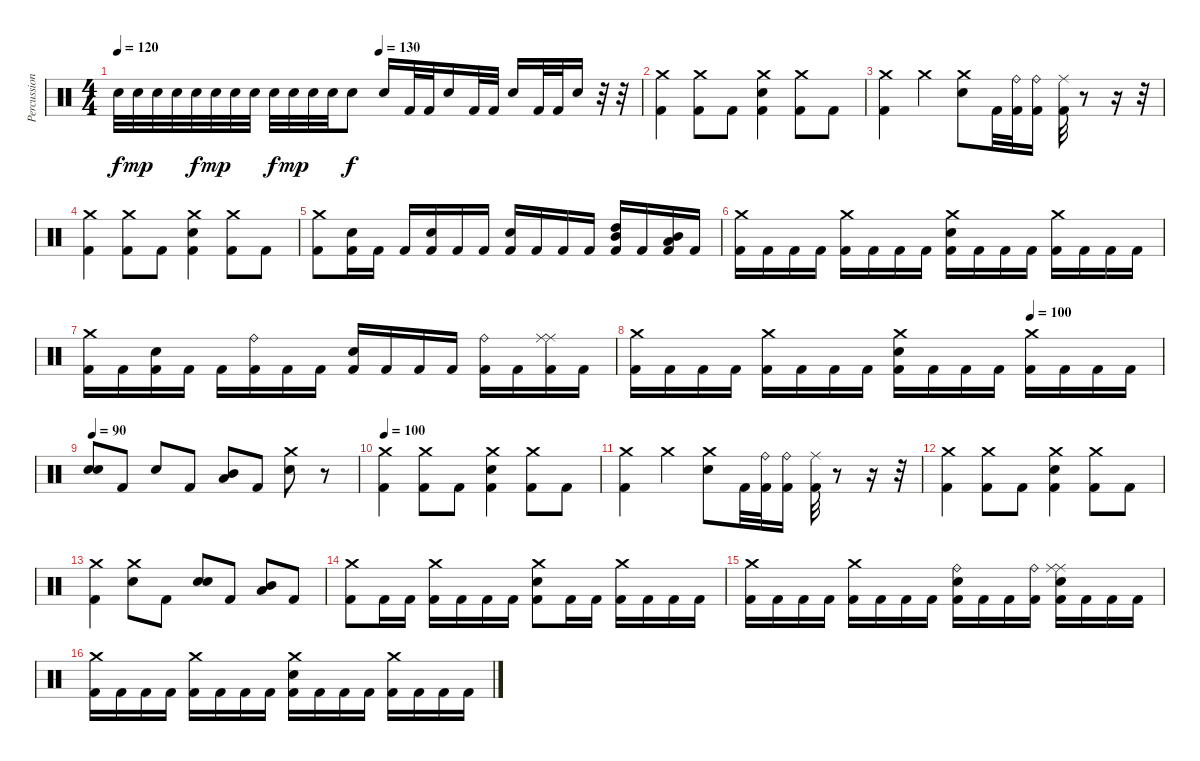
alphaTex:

\track ("Percussion" "Percussion") {instrument percussion}
\staff {score}
\articulation defaults
\ts (4 4)
\tempo 120
\tempo (130 0.5)
\tempo 120
\clef neutral
\ks c "Electric Snare (hit)".32{dy f} "Electric Snare (hit)".32{dy mp} "Electric Snare (hit)".32 "Electric Snare (hit)".32 "Electric Snare (hit)".32{dy f} "Electric Snare (hit)".32{dy mp} "Electric Snare (hit)".32 "Electric Snare (hit)".32 "Electric Snare (hit)".32{dy f} "Electric Snare (hit)".32{dy mp} "Electric Snare (hit)".32 "Electric Snare (hit)".32 "Electric Snare (hit)".8{dy f} "Electric Snare (hit)".16 "Kick (hit) 2".32 "Kick (hit) 2".32 "Electric Snare (hit)".16 "Kick (hit) 2".32 "Kick (hit) 2".32 "Electric Snare (hit)".16 "Kick (hit) 2".32 "Kick (hit) 2".32 "Electric Snare (hit)".16
r.32 r.32 |
("Crash medium (hit)" "Kick (hit) 2").4 ("Crash medium (hit)" "Kick (hit) 2").8 "Kick (hit) 2".8 ("Crash medium (hit)" "Electric Snare (hit)" "Kick (hit) 2").4 ("Crash medium (hit)" "Kick (hit) 2").8 "Kick (hit) 2".8 |
("Crash medium (hit)" "Kick (hit) 2").4 "Crash medium (hit)".4 ("Crash medium (hit)" "Electric Snare (hit)").8 "Kick (hit) 2".32 ("Ride (bell)" "Kick (hit) 2").32 ("Ride (bell)" "Kick (hit) 2").16 ("Ride (middle)" "Kick (hit) 2").32 r.8 r.16 r.32 |
("Crash medium (hit)" "Kick (hit) 2").4 ("Crash medium (hit)" "Kick (hit) 2").8 "Kick (hit) 2".8 ("Crash medium (hit)" "Electric Snare (hit)" "Kick (hit) 2").4 ("Crash medium (hit)" "Kick (hit) 2").8 "Kick (hit) 2".8 |
("Crash medium (hit)" "Kick (hit) 2").8 ("Kick (hit) 2" "Electric Snare (hit)").16 "Kick (hit) 2".16 "Kick (hit) 2".16 ("Electric Snare (hit)" "Kick (hit) 2").16 "Kick (hit) 2".16 "Kick (hit) 2".16 ("Electric Snare (hit)" "Kick (hit) 2").16 "Kick (hit) 2".16 "Kick (hit) 2".16 "Kick (hit) 2".16 ("High Tom (hit)" "Mid Tom (hit)" "Kick (hit) 2").16 "Kick (hit) 2".16 ("Low Tom (hit)" "Mid Tom (hit)" "Kick (hit) 2").16 "Kick (hit) 2".16 |
("Crash medium (hit)" "Kick (hit) 2").16 "Kick (hit) 2".16 "Kick (hit) 2".16 "Kick (hit) 2".16 ("Crash medium (hit)" "Kick (hit) 2").16 "Kick (hit) 2".16 "Kick (hit) 2".16 "Kick (hit) 2".16 ("Electric Snare (hit)" "Crash medium (hit)" "Kick (hit) 2").16 "Kick (hit) 2".16 "Kick (hit) 2".16 "Kick (hit) 2".16 ("Crash medium (hit)" "Kick (hit) 2").16 "Kick (hit) 2".16 "Kick (hit) 2".16 "Kick (hit) 2".16 |
("Crash medium (hit)" "Kick (hit) 2").16 "Kick (hit) 2".16 ("Kick (hit) 2" "Electric Snare (hit)").16 "Kick (hit) 2".16 "Kick (hit) 2".16 ("Ride (bell)" "Kick (hit) 2").16 "Kick (hit) 2".16 "Kick (hit) 2".16 ("Electric Snare (hit)" "Kick (hit) 2").16 "Kick (hit) 2".16 "Kick (hit) 2".16 "Kick (hit) 2".16 ("Ride (bell)" "Kick (hit) 2").16 "Kick (hit) 2".16 ("Ride (middle)" "Kick (hit) 2" "Ride (middle)").16 "Kick (hit) 2".16 |
\tempo (100 0.75)
("Crash medium (hit)" "Kick (hit) 2").16 "Kick (hit) 2".16 "Kick (hit) 2".16 "Kick (hit) 2".16 ("Crash medium (hit)" "Kick (hit) 2").16 "Kick (hit) 2".16 "Kick (hit) 2".16 "Kick (hit) 2".16 ("Electric Snare (hit)" "Crash medium (hit)" "Kick (hit) 2").16 "Kick (hit) 2".16 "Kick (hit) 2".16 "Kick (hit) 2".16 ("Crash medium (hit)" "Kick (hit) 2").16 "Kick (hit) 2".16 "Kick (hit) 2".16 "Kick (hit) 2".16 |
\tempo 90
("Electric Snare (hit)" "Electric Snare (hit)").8 "Kick (hit) 2".8 "Electric Snare (hit)".8 "Kick (hit) 2".8 ("Low Tom (hit)" "Mid Tom (hit)").8 "Kick (hit) 2".8 ("Crash medium (hit)" "Electric Snare (hit)").8 r.8 |
\tempo 100
("Crash medium (hit)" "Kick (hit) 2").4 ("Crash medium (hit)" "Kick (hit) 2").8 "Kick (hit) 2".8 ("Crash medium (hit)" "Electric Snare (hit)" "Kick (hit) 2").4 ("Crash medium (hit)" "Kick (hit) 2").8 "Kick (hit) 2".8 |
("Crash medium (hit)" "Kick (hit) 2").4 "Crash medium (hit)".4 ("Crash medium (hit)" "Electric Snare (hit)").8 "Kick (hit) 2".32 ("Ride (bell)" "Kick (hit) 2").32 ("Ride (bell)" "Kick (hit) 2").16 ("Ride (middle)" "Kick (hit) 2").32 r.8 r.16 r.32 |
("Crash medium (hit)" "Kick (hit) 2").4 ("Crash medium (hit)" "Kick (hit) 2").8 "Kick (hit) 2".8 ("Crash medium (hit)" "Electric Snare (hit)" "Kick (hit) 2").4 ("Crash medium (hit)" "Kick (hit) 2").8 "Kick (hit) 2".8 |
("Crash medium (hit)" "Kick (hit) 2").4 ("Crash medium (hit)" "Electric Snare (hit)").8 "Kick (hit) 2".8 ("Electric Snare (hit)" "Electric Snare (hit)").8{bd 60} "Kick (hit) 2".8 ("Mid Tom (hit)" "Low Tom (hit)").8{bd 60} "Kick (hit) 2".8 |
("Crash medium (hit)" "Kick (hit) 2").8 "Kick (hit) 2".16 "Kick (hit) 2".16 ("Crash medium (hit)" "Kick (hit) 2").16 "Kick (hit) 2".16 "Kick (hit) 2".16 "Kick (hit) 2".16 ("Electric Snare (hit)" "Crash medium (hit)" "Kick (hit) 2").8 "Kick (hit) 2".16 "Kick (hit) 2".16 ("Crash medium (hit)" "Kick (hit) 2").16 "Kick (hit) 2".16 "Kick (hit) 2".16 "Kick (hit) 2".16 |
("Crash medium (hit)" "Kick (hit) 2").16 "Kick (hit) 2".16 "Kick (hit) 2".16 "Kick (hit) 2".16 ("Crash medium (hit)" "Kick (hit) 2").16 "Kick (hit) 2".16 "Kick (hit) 2".16 "Kick (hit) 2".16 ("Electric Snare (hit)" "Kick (hit) 2" "Ride (bell)").16 "Kick (hit) 2".16 "Kick (hit) 2".16 ("Kick (hit) 2" "Ride (bell)").16 ("Electric Snare (hit)" "Kick (hit) 2" "Ride (middle)" "Ride (middle)").16 "Kick (hit) 2".16 "Kick (hit) 2".16 "Kick (hit) 2".16 |
("Crash medium (hit)" "Kick (hit) 2").16 "Kick (hit) 2".16 "Kick (hit) 2".16 "Kick (hit) 2".16 ("Crash medium (hit)" "Kick (hit) 2").16 "Kick (hit) 2".16 "Kick (hit) 2".16 "Kick (hit) 2".16 ("Electric Snare (hit)" "Crash medium (hit)" "Kick (hit) 2").16 "Kick (hit) 2".16 "Kick (hit) 2".16 "Kick (hit) 2".16 ("Crash medium (hit)" "Kick (hit) 2").16 "Kick (hit) 2".16 "Kick (hit) 2".16 "Kick (hit) 2".16
